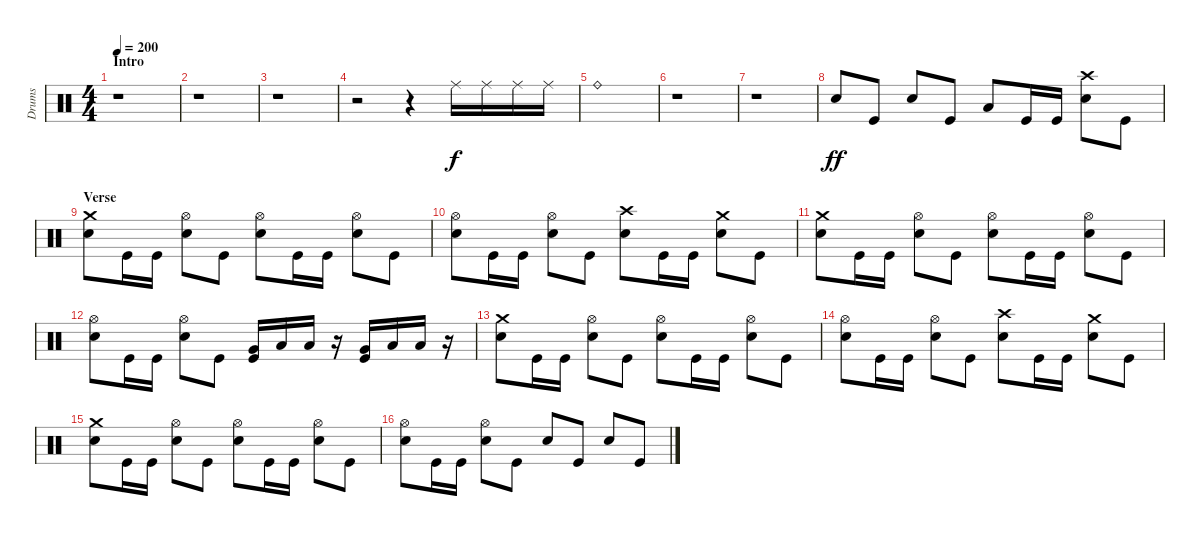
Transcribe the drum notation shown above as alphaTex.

\track ("Drums" "Drums") {instrument percussion}
\staff {score}
\articulation defaults
\ts (4 4)
\section ("" "Intro")
\tempo 200
\clef neutral
\ks c
r.1{dy f} |
r.1 |
r.1 |
r.2 r.4 "Ride (middle)".16 "Ride (middle)".16 "Ride (middle)".16 "Ride (middle)".16 |
"Ride (bell)".1 |
r.1 |
r.1 |
"Electric Snare (hit)".8{dy ff} "Kick (hit)".8 "Electric Snare (hit)".8 "Kick (hit)".8 "Low Floor Tom (hit)".8 "Kick (hit)".16 "Kick (hit)".16 ("Crash high (hit)" "Electric Snare (hit)").8 "Kick (hit)".8 |
\section ("" "Verse")
("Crash medium (hit)" "Electric Snare (hit)").8 "Kick (hit)".16 "Kick (hit)".16 ("Hi-Hat (open)" "Electric Snare (hit)").8 "Kick (hit)".8 ("Hi-Hat (open)" "Electric Snare (hit)").8 "Kick (hit)".16 "Kick (hit)".16 ("Hi-Hat (open)" "Electric Snare (hit)").8 "Kick (hit)".8 |
("Hi-Hat (open)" "Electric Snare (hit)").8 "Kick (hit)".16 "Kick (hit)".16 ("Hi-Hat (open)" "Electric Snare (hit)").8 "Kick (hit)".8 ("Crash high (hit)" "Electric Snare (hit)").8 "Kick (hit)".16 "Kick (hit)".16 ("Crash medium (hit)" "Electric Snare (hit)").8 "Kick (hit)".8 |
("Crash medium (hit)" "Electric Snare (hit)").8 "Kick (hit)".16 "Kick (hit)".16 ("Hi-Hat (open)" "Electric Snare (hit)").8 "Kick (hit)".8 ("Hi-Hat (open)" "Electric Snare (hit)").8 "Kick (hit)".16 "Kick (hit)".16 ("Hi-Hat (open)" "Electric Snare (hit)").8 "Kick (hit)".8 |
("Hi-Hat (open)" "Electric Snare (hit)").8 "Kick (hit)".16 "Kick (hit)".16 ("Hi-Hat (open)" "Electric Snare (hit)").8 "Kick (hit)".8 ("Very Low Tom (hit)" "Kick (hit)").16 "Low Floor Tom (hit)".16 "Low Floor Tom (hit)".16 r.16 ("Very Low Tom (hit)" "Kick (hit)").16 "Low Floor Tom (hit)".16 "Low Floor Tom (hit)".16 r.16 |
("Crash medium (hit)" "Electric Snare (hit)").8 "Kick (hit)".16 "Kick (hit)".16 ("Hi-Hat (open)" "Electric Snare (hit)").8 "Kick (hit)".8 ("Hi-Hat (open)" "Electric Snare (hit)").8 "Kick (hit)".16 "Kick (hit)".16 ("Hi-Hat (open)" "Electric Snare (hit)").8 "Kick (hit)".8 |
("Hi-Hat (open)" "Electric Snare (hit)").8 "Kick (hit)".16 "Kick (hit)".16 ("Hi-Hat (open)" "Electric Snare (hit)").8 "Kick (hit)".8 ("Crash high (hit)" "Electric Snare (hit)").8 "Kick (hit)".16 "Kick (hit)".16 ("Crash medium (hit)" "Electric Snare (hit)").8 "Kick (hit)".8 |
("Crash medium (hit)" "Electric Snare (hit)").8 "Kick (hit)".16 "Kick (hit)".16 ("Hi-Hat (open)" "Electric Snare (hit)").8 "Kick (hit)".8 ("Hi-Hat (open)" "Electric Snare (hit)").8 "Kick (hit)".16 "Kick (hit)".16 ("Hi-Hat (open)" "Electric Snare (hit)").8 "Kick (hit)".8 |
("Hi-Hat (open)" "Electric Snare (hit)").8 "Kick (hit)".16 "Kick (hit)".16 ("Hi-Hat (open)" "Electric Snare (hit)").8 "Kick (hit)".8 "Electric Snare (hit)".8 "Kick (hit)".8 "Electric Snare (hit)".8 "Kick (hit)".8
